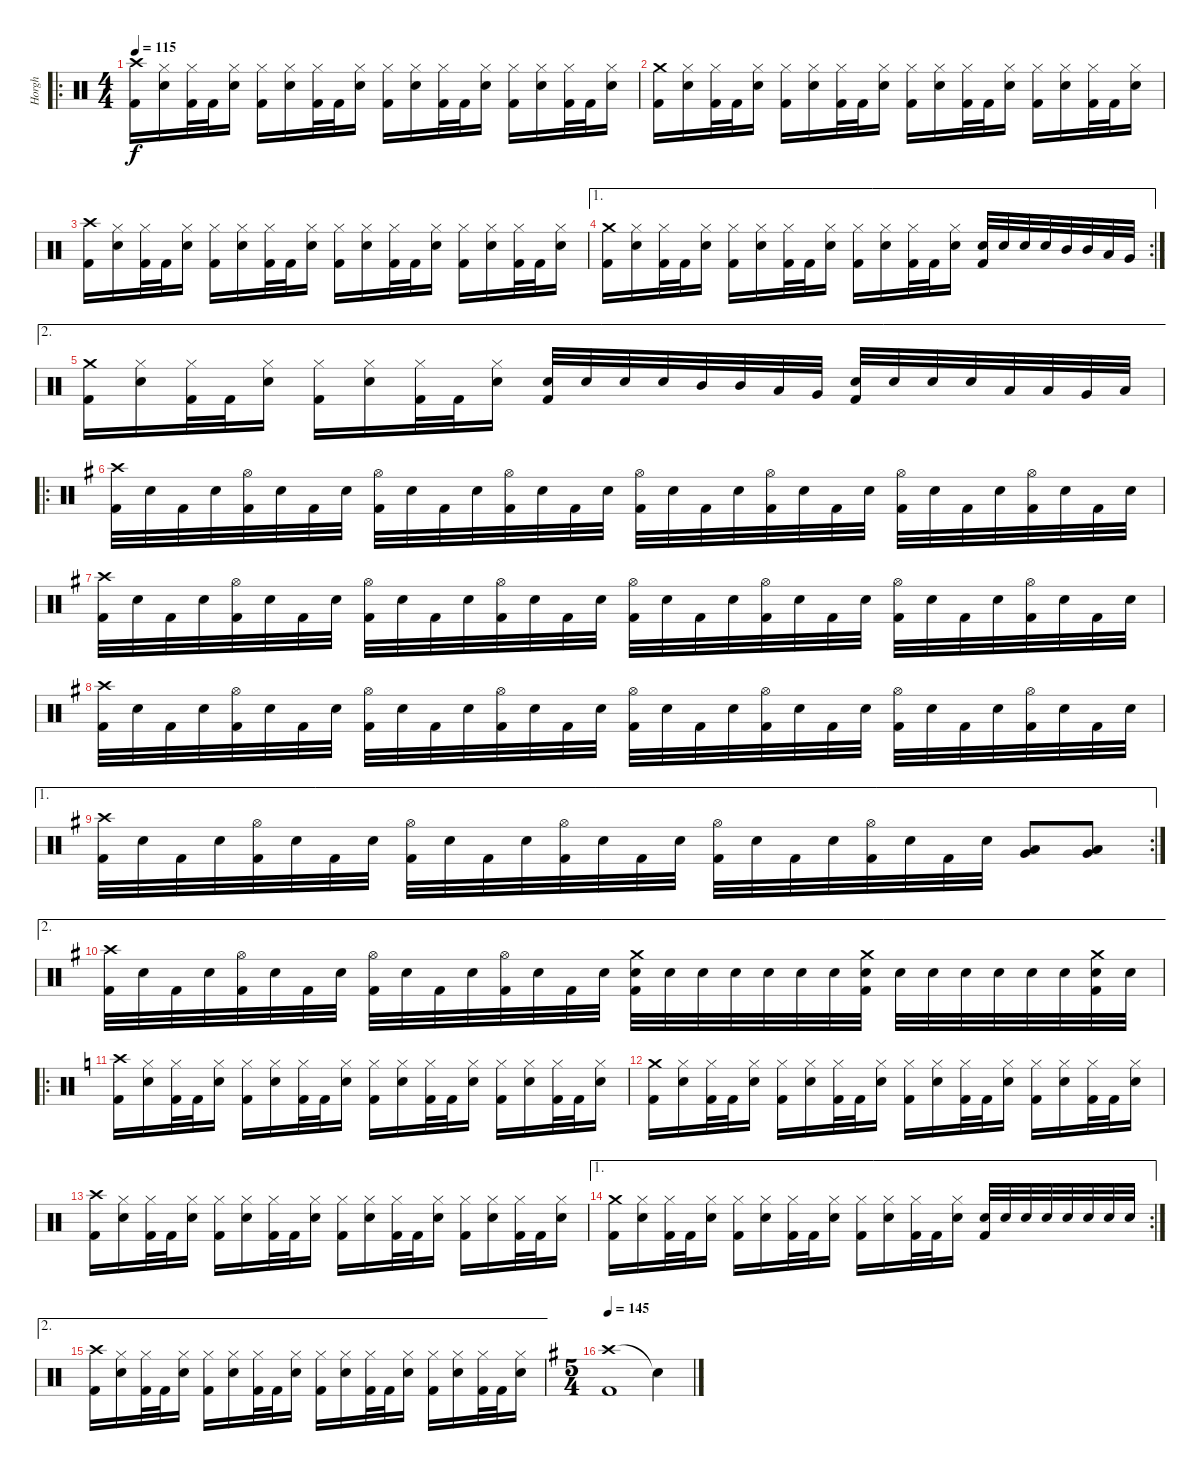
\track ("Horgh" "Horgh") {instrument percussion}
\staff {score}
\articulation defaults
\ro
\ts (4 4)
\tempo 115
\clef neutral
\ks c
("Crash high (hit)" "Kick (hit) 2").16{dy f} ("Hi-Hat (closed)" "Electric Snare (hit)").16 ("Hi-Hat (closed)" "Kick (hit) 2").32 "Kick (hit) 2".32 ("Hi-Hat (closed)" "Electric Snare (hit)").16 ("Hi-Hat (closed)" "Kick (hit) 2").16 ("Hi-Hat (closed)" "Electric Snare (hit)").16 ("Hi-Hat (closed)" "Kick (hit) 2").32 "Kick (hit) 2".32 ("Hi-Hat (closed)" "Electric Snare (hit)").16 ("Hi-Hat (closed)" "Kick (hit) 2").16 ("Hi-Hat (closed)" "Electric Snare (hit)").16 ("Hi-Hat (closed)" "Kick (hit) 2").32 "Kick (hit) 2".32 ("Hi-Hat (closed)" "Electric Snare (hit)").16 ("Hi-Hat (closed)" "Kick (hit) 2").16 ("Hi-Hat (closed)" "Electric Snare (hit)").16 ("Hi-Hat (closed)" "Kick (hit) 2").32 "Kick (hit) 2".32 ("Hi-Hat (closed)" "Electric Snare (hit)").16 |
("Crash medium (hit)" "Kick (hit) 2").16 ("Hi-Hat (closed)" "Electric Snare (hit)").16 ("Hi-Hat (closed)" "Kick (hit) 2").32 "Kick (hit) 2".32 ("Hi-Hat (closed)" "Electric Snare (hit)").16 ("Hi-Hat (closed)" "Kick (hit) 2").16 ("Hi-Hat (closed)" "Electric Snare (hit)").16 ("Hi-Hat (closed)" "Kick (hit) 2").32 "Kick (hit) 2".32 ("Hi-Hat (closed)" "Electric Snare (hit)").16 ("Hi-Hat (closed)" "Kick (hit) 2").16 ("Hi-Hat (closed)" "Electric Snare (hit)").16 ("Hi-Hat (closed)" "Kick (hit) 2").32 "Kick (hit) 2".32 ("Hi-Hat (closed)" "Electric Snare (hit)").16 ("Hi-Hat (closed)" "Kick (hit) 2").16 ("Hi-Hat (closed)" "Electric Snare (hit)").16 ("Hi-Hat (closed)" "Kick (hit) 2").32 "Kick (hit) 2".32 ("Hi-Hat (closed)" "Electric Snare (hit)").16 |
("Crash high (hit)" "Kick (hit) 2").16 ("Hi-Hat (closed)" "Electric Snare (hit)").16 ("Hi-Hat (closed)" "Kick (hit) 2").32 "Kick (hit) 2".32 ("Hi-Hat (closed)" "Electric Snare (hit)").16 ("Hi-Hat (closed)" "Kick (hit) 2").16 ("Hi-Hat (closed)" "Electric Snare (hit)").16 ("Hi-Hat (closed)" "Kick (hit) 2").32 "Kick (hit) 2".32 ("Hi-Hat (closed)" "Electric Snare (hit)").16 ("Hi-Hat (closed)" "Kick (hit) 2").16 ("Hi-Hat (closed)" "Electric Snare (hit)").16 ("Hi-Hat (closed)" "Kick (hit) 2").32 "Kick (hit) 2".32 ("Hi-Hat (closed)" "Electric Snare (hit)").16 ("Hi-Hat (closed)" "Kick (hit) 2").16 ("Hi-Hat (closed)" "Electric Snare (hit)").16 ("Hi-Hat (closed)" "Kick (hit) 2").32 "Kick (hit) 2".32 ("Hi-Hat (closed)" "Electric Snare (hit)").16 |
\ae 1
\rc 2
("Crash medium (hit)" "Kick (hit) 2").16 ("Hi-Hat (closed)" "Electric Snare (hit)").16 ("Hi-Hat (closed)" "Kick (hit) 2").32 "Kick (hit) 2".32 ("Hi-Hat (closed)" "Electric Snare (hit)").16 ("Hi-Hat (closed)" "Kick (hit) 2").16 ("Hi-Hat (closed)" "Electric Snare (hit)").16 ("Hi-Hat (closed)" "Kick (hit) 2").32 "Kick (hit) 2".32 ("Hi-Hat (closed)" "Electric Snare (hit)").16 ("Hi-Hat (closed)" "Kick (hit) 2").16 ("Hi-Hat (closed)" "Electric Snare (hit)").16 ("Hi-Hat (closed)" "Kick (hit) 2").32 "Kick (hit) 2".32 ("Hi-Hat (closed)" "Electric Snare (hit)").16 ("Electric Snare (hit)" "Kick (hit) 2").32 "Electric Snare (hit)".32 "Electric Snare (hit)".32 "Electric Snare (hit)".32 "Mid Tom (hit)".32 "Mid Tom (hit)".32 "Low Tom (hit)".32 "Very Low Tom (hit)".32 |
\ae 2
("Crash medium (hit)" "Kick (hit) 2").16 ("Hi-Hat (closed)" "Electric Snare (hit)").16 ("Hi-Hat (closed)" "Kick (hit) 2").32 "Kick (hit) 2".32 ("Hi-Hat (closed)" "Electric Snare (hit)").16 ("Hi-Hat (closed)" "Kick (hit) 2").16 ("Hi-Hat (closed)" "Electric Snare (hit)").16 ("Hi-Hat (closed)" "Kick (hit) 2").32 "Kick (hit) 2".32 ("Hi-Hat (closed)" "Electric Snare (hit)").16 ("Electric Snare (hit)" "Kick (hit) 2").32 "Electric Snare (hit)".32 "Electric Snare (hit)".32 "Electric Snare (hit)".32 "Mid Tom (hit)".32 "Mid Tom (hit)".32 "Low Tom (hit)".32 "Very Low Tom (hit)".32 ("Electric Snare (hit)" "Kick (hit) 2").32 "Electric Snare (hit)".32 "Electric Snare (hit)".32 "Electric Snare (hit)".32 "Low Tom (hit)".32 "Low Tom (hit)".32 "Very Low Tom (hit)".32 "Low Floor Tom (hit)".32 |
\ro
\ks g
("Crash high (hit)" "Kick (hit) 2").32 "Electric Snare (hit)".32 "Kick (hit) 2".32 "Electric Snare (hit)".32 ("Hi-Hat (open)" "Kick (hit) 2").32 "Electric Snare (hit)".32 "Kick (hit) 2".32 "Electric Snare (hit)".32 ("Hi-Hat (open)" "Kick (hit) 2").32 "Electric Snare (hit)".32 "Kick (hit) 2".32 "Electric Snare (hit)".32 ("Hi-Hat (open)" "Kick (hit) 2").32 "Electric Snare (hit)".32 "Kick (hit) 2".32 "Electric Snare (hit)".32 ("Hi-Hat (open)" "Kick (hit) 2").32 "Electric Snare (hit)".32 "Kick (hit) 2".32 "Electric Snare (hit)".32 ("Hi-Hat (open)" "Kick (hit) 2").32 "Electric Snare (hit)".32 "Kick (hit) 2".32 "Electric Snare (hit)".32 ("Hi-Hat (open)" "Kick (hit) 2").32 "Electric Snare (hit)".32 "Kick (hit) 2".32 "Electric Snare (hit)".32 ("Hi-Hat (open)" "Kick (hit) 2").32 "Electric Snare (hit)".32 "Kick (hit) 2".32 "Electric Snare (hit)".32 |
("Crash high (hit)" "Kick (hit) 2").32 "Electric Snare (hit)".32 "Kick (hit) 2".32 "Electric Snare (hit)".32 ("Hi-Hat (open)" "Kick (hit) 2").32 "Electric Snare (hit)".32 "Kick (hit) 2".32 "Electric Snare (hit)".32 ("Hi-Hat (open)" "Kick (hit) 2").32 "Electric Snare (hit)".32 "Kick (hit) 2".32 "Electric Snare (hit)".32 ("Hi-Hat (open)" "Kick (hit) 2").32 "Electric Snare (hit)".32 "Kick (hit) 2".32 "Electric Snare (hit)".32 ("Hi-Hat (open)" "Kick (hit) 2").32 "Electric Snare (hit)".32 "Kick (hit) 2".32 "Electric Snare (hit)".32 ("Hi-Hat (open)" "Kick (hit) 2").32 "Electric Snare (hit)".32 "Kick (hit) 2".32 "Electric Snare (hit)".32 ("Hi-Hat (open)" "Kick (hit) 2").32 "Electric Snare (hit)".32 "Kick (hit) 2".32 "Electric Snare (hit)".32 ("Hi-Hat (open)" "Kick (hit) 2").32 "Electric Snare (hit)".32 "Kick (hit) 2".32 "Electric Snare (hit)".32 |
("Crash high (hit)" "Kick (hit) 2").32 "Electric Snare (hit)".32 "Kick (hit) 2".32 "Electric Snare (hit)".32 ("Hi-Hat (open)" "Kick (hit) 2").32 "Electric Snare (hit)".32 "Kick (hit) 2".32 "Electric Snare (hit)".32 ("Hi-Hat (open)" "Kick (hit) 2").32 "Electric Snare (hit)".32 "Kick (hit) 2".32 "Electric Snare (hit)".32 ("Hi-Hat (open)" "Kick (hit) 2").32 "Electric Snare (hit)".32 "Kick (hit) 2".32 "Electric Snare (hit)".32 ("Hi-Hat (open)" "Kick (hit) 2").32 "Electric Snare (hit)".32 "Kick (hit) 2".32 "Electric Snare (hit)".32 ("Hi-Hat (open)" "Kick (hit) 2").32 "Electric Snare (hit)".32 "Kick (hit) 2".32 "Electric Snare (hit)".32 ("Hi-Hat (open)" "Kick (hit) 2").32 "Electric Snare (hit)".32 "Kick (hit) 2".32 "Electric Snare (hit)".32 ("Hi-Hat (open)" "Kick (hit) 2").32 "Electric Snare (hit)".32 "Kick (hit) 2".32 "Electric Snare (hit)".32 |
\ae 1
\rc 2
("Crash high (hit)" "Kick (hit) 2").32 "Electric Snare (hit)".32 "Kick (hit) 2".32 "Electric Snare (hit)".32 ("Hi-Hat (open)" "Kick (hit) 2").32 "Electric Snare (hit)".32 "Kick (hit) 2".32 "Electric Snare (hit)".32 ("Hi-Hat (open)" "Kick (hit) 2").32 "Electric Snare (hit)".32 "Kick (hit) 2".32 "Electric Snare (hit)".32 ("Hi-Hat (open)" "Kick (hit) 2").32 "Electric Snare (hit)".32 "Kick (hit) 2".32 "Electric Snare (hit)".32 ("Hi-Hat (open)" "Kick (hit) 2").32 "Electric Snare (hit)".32 "Kick (hit) 2".32 "Electric Snare (hit)".32 ("Hi-Hat (open)" "Kick (hit) 2").32 "Electric Snare (hit)".32 "Kick (hit) 2".32 "Electric Snare (hit)".32 ("Low Tom (hit)" "Very Low Tom (hit)").8 ("Very Low Tom (hit)" "Low Floor Tom (hit)").8 |
\ae 2
("Crash high (hit)" "Kick (hit) 2").32 "Electric Snare (hit)".32 "Kick (hit) 2".32 "Electric Snare (hit)".32 ("Hi-Hat (open)" "Kick (hit) 2").32 "Electric Snare (hit)".32 "Kick (hit) 2".32 "Electric Snare (hit)".32 ("Hi-Hat (open)" "Kick (hit) 2").32 "Electric Snare (hit)".32 "Kick (hit) 2".32 "Electric Snare (hit)".32 ("Hi-Hat (open)" "Kick (hit) 2").32 "Electric Snare (hit)".32 "Kick (hit) 2".32 "Electric Snare (hit)".32 ("Crash medium (hit)" "Electric Snare (hit)" "Kick (hit) 2").32 "Electric Snare (hit)".32 "Electric Snare (hit)".32 "Electric Snare (hit)".32 "Electric Snare (hit)".32 "Electric Snare (hit)".32 "Electric Snare (hit)".32 ("Crash medium (hit)" "Electric Snare (hit)" "Kick (hit) 2").32 "Electric Snare (hit)".32 "Electric Snare (hit)".32 "Electric Snare (hit)".32 "Electric Snare (hit)".32 "Electric Snare (hit)".32 "Electric Snare (hit)".32 ("Crash medium (hit)" "Electric Snare (hit)" "Kick (hit) 2").32 "Electric Snare (hit)".32 |
\ro
\ks c
("Crash high (hit)" "Kick (hit) 2").16 ("Hi-Hat (closed)" "Electric Snare (hit)").16 ("Hi-Hat (closed)" "Kick (hit) 2").32 "Kick (hit) 2".32 ("Hi-Hat (closed)" "Electric Snare (hit)").16 ("Hi-Hat (closed)" "Kick (hit) 2").16 ("Hi-Hat (closed)" "Electric Snare (hit)").16 ("Hi-Hat (closed)" "Kick (hit) 2").32 "Kick (hit) 2".32 ("Hi-Hat (closed)" "Electric Snare (hit)").16 ("Hi-Hat (closed)" "Kick (hit) 2").16 ("Hi-Hat (closed)" "Electric Snare (hit)").16 ("Hi-Hat (closed)" "Kick (hit) 2").32 "Kick (hit) 2".32 ("Hi-Hat (closed)" "Electric Snare (hit)").16 ("Hi-Hat (closed)" "Kick (hit) 2").16 ("Hi-Hat (closed)" "Electric Snare (hit)").16 ("Hi-Hat (closed)" "Kick (hit) 2").32 "Kick (hit) 2".32 ("Hi-Hat (closed)" "Electric Snare (hit)").16 |
("Crash medium (hit)" "Kick (hit) 2").16 ("Hi-Hat (closed)" "Electric Snare (hit)").16 ("Hi-Hat (closed)" "Kick (hit) 2").32 "Kick (hit) 2".32 ("Hi-Hat (closed)" "Electric Snare (hit)").16 ("Hi-Hat (closed)" "Kick (hit) 2").16 ("Hi-Hat (closed)" "Electric Snare (hit)").16 ("Hi-Hat (closed)" "Kick (hit) 2").32 "Kick (hit) 2".32 ("Hi-Hat (closed)" "Electric Snare (hit)").16 ("Hi-Hat (closed)" "Kick (hit) 2").16 ("Hi-Hat (closed)" "Electric Snare (hit)").16 ("Hi-Hat (closed)" "Kick (hit) 2").32 "Kick (hit) 2".32 ("Hi-Hat (closed)" "Electric Snare (hit)").16 ("Hi-Hat (closed)" "Kick (hit) 2").16 ("Hi-Hat (closed)" "Electric Snare (hit)").16 ("Hi-Hat (closed)" "Kick (hit) 2").32 "Kick (hit) 2".32 ("Hi-Hat (closed)" "Electric Snare (hit)").16 |
("Crash high (hit)" "Kick (hit) 2").16 ("Hi-Hat (closed)" "Electric Snare (hit)").16 ("Hi-Hat (closed)" "Kick (hit) 2").32 "Kick (hit) 2".32 ("Hi-Hat (closed)" "Electric Snare (hit)").16 ("Hi-Hat (closed)" "Kick (hit) 2").16 ("Hi-Hat (closed)" "Electric Snare (hit)").16 ("Hi-Hat (closed)" "Kick (hit) 2").32 "Kick (hit) 2".32 ("Hi-Hat (closed)" "Electric Snare (hit)").16 ("Hi-Hat (closed)" "Kick (hit) 2").16 ("Hi-Hat (closed)" "Electric Snare (hit)").16 ("Hi-Hat (closed)" "Kick (hit) 2").32 "Kick (hit) 2".32 ("Hi-Hat (closed)" "Electric Snare (hit)").16 ("Hi-Hat (closed)" "Kick (hit) 2").16 ("Hi-Hat (closed)" "Electric Snare (hit)").16 ("Hi-Hat (closed)" "Kick (hit) 2").32 "Kick (hit) 2".32 ("Hi-Hat (closed)" "Electric Snare (hit)").16 |
\ae 1
\rc 2
("Crash medium (hit)" "Kick (hit) 2").16 ("Hi-Hat (closed)" "Electric Snare (hit)").16 ("Hi-Hat (closed)" "Kick (hit) 2").32 "Kick (hit) 2".32 ("Hi-Hat (closed)" "Electric Snare (hit)").16 ("Hi-Hat (closed)" "Kick (hit) 2").16 ("Hi-Hat (closed)" "Electric Snare (hit)").16 ("Hi-Hat (closed)" "Kick (hit) 2").32 "Kick (hit) 2".32 ("Hi-Hat (closed)" "Electric Snare (hit)").16 ("Hi-Hat (closed)" "Kick (hit) 2").16 ("Hi-Hat (closed)" "Electric Snare (hit)").16 ("Hi-Hat (closed)" "Kick (hit) 2").32 "Kick (hit) 2".32 ("Hi-Hat (closed)" "Electric Snare (hit)").16 ("Electric Snare (hit)" "Kick (hit) 2").32 "Electric Snare (hit)".32 "Electric Snare (hit)".32 "Electric Snare (hit)".32 "Electric Snare (hit)".32 "Electric Snare (hit)".32 "Electric Snare (hit)".32 "Electric Snare (hit)".32 |
\ae 2
("Crash high (hit)" "Kick (hit) 2").16 ("Hi-Hat (closed)" "Electric Snare (hit)").16 ("Hi-Hat (closed)" "Kick (hit) 2").32 "Kick (hit) 2".32 ("Hi-Hat (closed)" "Electric Snare (hit)").16 ("Hi-Hat (closed)" "Kick (hit) 2").16 ("Hi-Hat (closed)" "Electric Snare (hit)").16 ("Hi-Hat (closed)" "Kick (hit) 2").32 "Kick (hit) 2".32 ("Hi-Hat (closed)" "Electric Snare (hit)").16 ("Hi-Hat (closed)" "Kick (hit) 2").16 ("Hi-Hat (closed)" "Electric Snare (hit)").16 ("Hi-Hat (closed)" "Kick (hit) 2").32 "Kick (hit) 2".32 ("Hi-Hat (closed)" "Electric Snare (hit)").16 ("Hi-Hat (closed)" "Kick (hit) 2").16 ("Hi-Hat (closed)" "Electric Snare (hit)").16 ("Hi-Hat (closed)" "Kick (hit) 2").32 "Kick (hit) 2".32 ("Hi-Hat (closed)" "Electric Snare (hit)").16 |
\ts (5 4)
\tempo 145
\ks g
("Crash high (hit)" "Kick (hit) 2").1 "Snare (hit)"{t}.4
